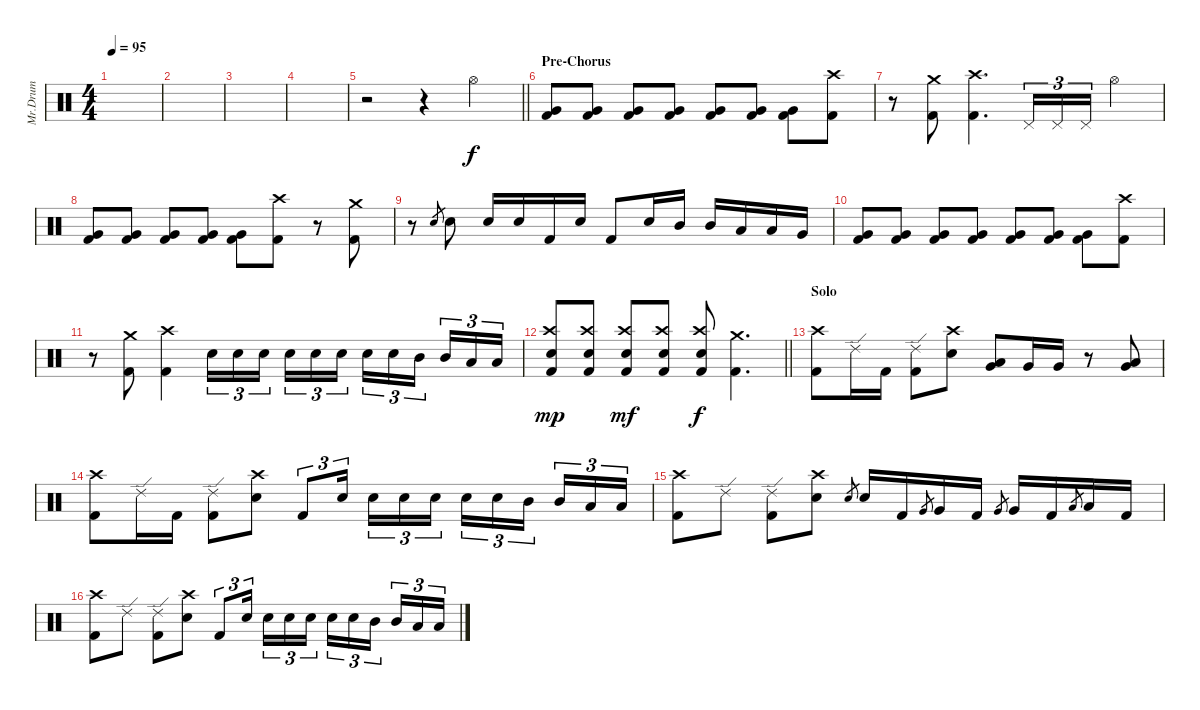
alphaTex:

\track ("Mr.Drum" "Mr.Drum") {instrument percussion}
\staff {score}
\articulation defaults
\ts (4 4)
\tempo 95
\clef neutral
\ks c
|
|
|
|
\barLineRight lightlight
r.2 r.4 "Hi-Hat (open)".4 |
\section ("" "Pre-Chorus")
("Very Low Tom (hit)" "Kick (hit) 2").8 ("Very Low Tom (hit)" "Kick (hit) 2").8 ("Very Low Tom (hit)" "Kick (hit) 2").8 ("Very Low Tom (hit)" "Kick (hit) 2").8 ("Very Low Tom (hit)" "Kick (hit) 2").8 ("Very Low Tom (hit)" "Kick (hit) 2").8 ("Very Low Tom (hit)" "Kick (hit) 2").8 ("Crash high (hit)" "Kick (hit) 2").8 |
r.8 ("Crash medium (hit)" "Kick (hit) 2").8 ("Crash high (hit)" "Kick (hit) 2").4{d} "Pedal Hi-Hat (hit)".16{tu (3 2)} "Pedal Hi-Hat (hit)".16{tu (3 2)} "Pedal Hi-Hat (hit)".16{tu (3 2)} "Hi-Hat (open)".4 |
("Very Low Tom (hit)" "Kick (hit) 2").8 ("Very Low Tom (hit)" "Kick (hit) 2").8 ("Very Low Tom (hit)" "Kick (hit) 2").8 ("Very Low Tom (hit)" "Kick (hit) 2").8 ("Very Low Tom (hit)" "Kick (hit) 2").8 ("Crash high (hit)" "Kick (hit) 2").8 r.8 ("Crash medium (hit)" "Kick (hit) 2").8 |
r.8 "Electric Snare (hit)".8{gr} "Electric Snare (hit)".8 "Electric Snare (hit)".16 "Electric Snare (hit)".16 "Kick (hit) 2".16 "Electric Snare (hit)".16 "Kick (hit) 2".8 "Electric Snare (hit)".16 "Mid Tom (hit)".16 "Mid Tom (hit)".16 "Low Tom (hit)".16 "Low Tom (hit)".16 "Very Low Tom (hit)".16 |
("Very Low Tom (hit)" "Kick (hit) 2").8 ("Very Low Tom (hit)" "Kick (hit) 2").8 ("Very Low Tom (hit)" "Kick (hit) 2").8 ("Very Low Tom (hit)" "Kick (hit) 2").8 ("Very Low Tom (hit)" "Kick (hit) 2").8 ("Very Low Tom (hit)" "Kick (hit) 2").8 ("Very Low Tom (hit)" "Kick (hit) 2").8 ("Crash high (hit)" "Kick (hit) 2").8 |
r.8 ("Crash medium (hit)" "Kick (hit) 2").8 ("Crash high (hit)" "Kick (hit) 2").4 "Electric Snare (hit)".16{tu (3 2)} "Electric Snare (hit)".16{tu (3 2)} "Electric Snare (hit)".16{tu (3 2) beam splitsecondary} "Electric Snare (hit)".16{tu (3 2)} "Electric Snare (hit)".16{tu (3 2)} "Electric Snare (hit)".16{tu (3 2)} "Electric Snare (hit)".16{tu (3 2)} "Electric Snare (hit)".16{tu (3 2)} "Mid Tom (hit)".16{tu (3 2) beam splitsecondary} "Mid Tom (hit)".16{tu (3 2)} "Low Tom (hit)".16{tu (3 2)} "Low Tom (hit)".16{tu (3 2)} |
\barLineRight lightlight
("Crash high (hit)" "Electric Snare (hit)" "Kick (hit) 2").8{dy mp} ("Crash high (hit)" "Electric Snare (hit)" "Kick (hit) 2").8 ("Crash high (hit)" "Electric Snare (hit)" "Kick (hit) 2").8{dy mf} ("Crash high (hit)" "Electric Snare (hit)" "Kick (hit) 2").8 ("Crash high (hit)" "Electric Snare (hit)" "Kick (hit) 2").8{dy f} ("Crash medium (hit)" "Kick (hit) 2").4{d} |
\section ("" "Solo")
("Crash high (hit)" "Kick (hit) 2").8 "Ride (edge) 2".16 "Kick (hit) 2".16 ("Ride (edge) 2" "Kick (hit) 2").8 ("Crash high (hit)" "Electric Snare (hit)").8 ("Very Low Tom (hit)" "Low Floor Tom (hit)").8 "Very Low Tom (hit)".16 "Very Low Tom (hit)".16 r.8 ("Very Low Tom (hit)" "Low Tom (hit)").8 |
("Crash high (hit)" "Kick (hit) 2").8 "Ride (edge) 2".16 "Kick (hit) 2".16 ("Ride (edge) 2" "Kick (hit) 2").8 ("Crash high (hit)" "Electric Snare (hit)").8 "Kick (hit) 2".8{tu (3 2)} "Electric Snare (hit)".16{tu (3 2) beam splitsecondary} "Electric Snare (hit)".16{tu (3 2)} "Electric Snare (hit)".16{tu (3 2)} "Electric Snare (hit)".16{tu (3 2)} "Electric Snare (hit)".16{tu (3 2)} "Electric Snare (hit)".16{tu (3 2)} "Mid Tom (hit)".16{tu (3 2) beam splitsecondary} "Mid Tom (hit)".16{tu (3 2)} "Low Tom (hit)".16{tu (3 2)} "Low Tom (hit)".16{tu (3 2)} |
("Crash high (hit)" "Kick (hit) 2").8 "Ride (edge) 2".8 ("Ride (edge) 2" "Kick (hit) 2").8 ("Crash high (hit)" "Electric Snare (hit)").8 "Electric Snare (hit)".8{gr} "Electric Snare (hit)".16 "Kick (hit) 2".16 "Very Low Tom (hit)".8{gr} "Very Low Tom (hit)".16 "Kick (hit) 2".16 "Very Low Tom (hit)".8{gr} "Very Low Tom (hit)".16 "Kick (hit) 2".16 "Low Floor Tom (hit)".8{gr} "Low Floor Tom (hit)".16 "Kick (hit) 2".16 |
("Crash high (hit)" "Kick (hit) 2").8 "Ride (edge) 2".8 ("Ride (edge) 2" "Kick (hit) 2").8 ("Crash high (hit)" "Electric Snare (hit)").8 "Kick (hit) 2".8{tu (3 2)} "Electric Snare (hit)".16{tu (3 2) beam splitsecondary} "Electric Snare (hit)".16{tu (3 2)} "Electric Snare (hit)".16{tu (3 2)} "Electric Snare (hit)".16{tu (3 2)} "Electric Snare (hit)".16{tu (3 2)} "Electric Snare (hit)".16{tu (3 2)} "Mid Tom (hit)".16{tu (3 2) beam splitsecondary} "Mid Tom (hit)".16{tu (3 2)} "Low Tom (hit)".16{tu (3 2)} "Low Tom (hit)".16{tu (3 2)}
